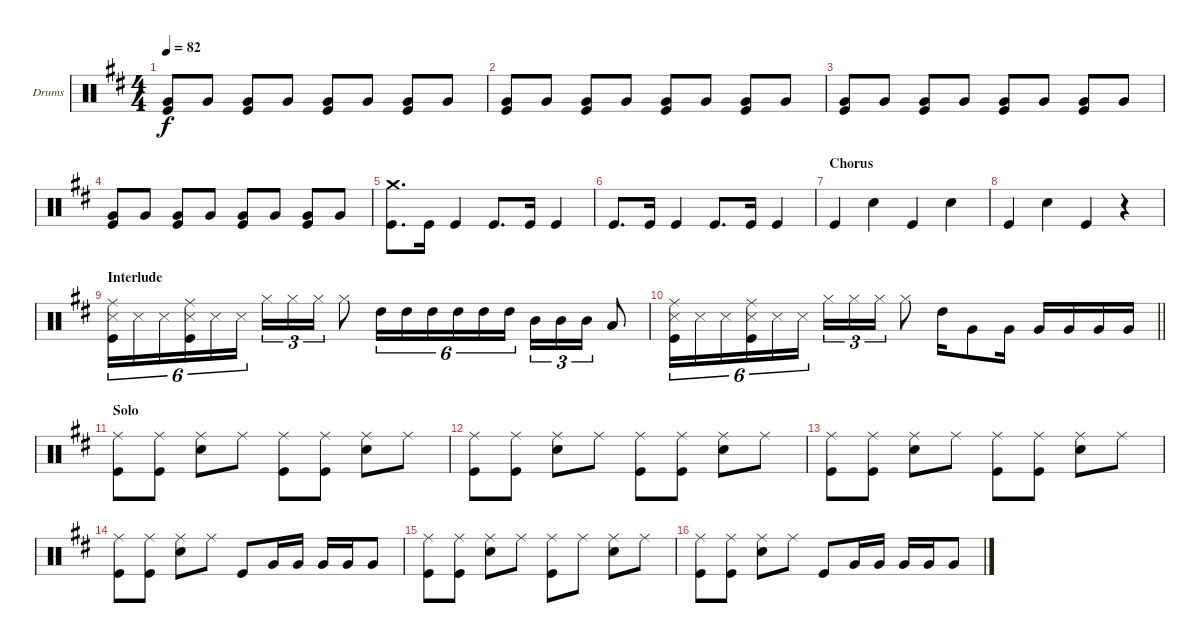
\bracketExtendMode groupsimilarinstruments
\firstSystemTrackNameOrientation horizontal
\otherSystemsTrackNameOrientation horizontal
\track ("Drumkit" "Drums") {instrument percussion}
\staff {score}
\articulation defaults
\ts (4 4)
\tempo 82
\clef neutral
\ks d
("Very Low Tom (hit)" "Kick (hit)").8{dy f} "Very Low Tom (hit)".8 ("Very Low Tom (hit)" "Kick (hit)").8 "Very Low Tom (hit)".8 ("Very Low Tom (hit)" "Kick (hit)").8 "Very Low Tom (hit)".8 ("Very Low Tom (hit)" "Kick (hit)").8 "Very Low Tom (hit)".8 |
("Very Low Tom (hit)" "Kick (hit)").8 "Very Low Tom (hit)".8 ("Very Low Tom (hit)" "Kick (hit)").8 "Very Low Tom (hit)".8 ("Very Low Tom (hit)" "Kick (hit)").8 "Very Low Tom (hit)".8 ("Very Low Tom (hit)" "Kick (hit)").8 "Very Low Tom (hit)".8 |
("Very Low Tom (hit)" "Kick (hit)").8 "Very Low Tom (hit)".8 ("Very Low Tom (hit)" "Kick (hit)").8 "Very Low Tom (hit)".8 ("Very Low Tom (hit)" "Kick (hit)").8 "Very Low Tom (hit)".8 ("Very Low Tom (hit)" "Kick (hit)").8 "Very Low Tom (hit)".8 |
("Very Low Tom (hit)" "Kick (hit)").8 "Very Low Tom (hit)".8 ("Very Low Tom (hit)" "Kick (hit)").8 "Very Low Tom (hit)".8 ("Very Low Tom (hit)" "Kick (hit)").8 "Very Low Tom (hit)".8 ("Very Low Tom (hit)" "Kick (hit)").8 "Very Low Tom (hit)".8 |
("Crash medium (hit)" "Kick (hit)").8{d} "Kick (hit)".16 "Kick (hit)".4 "Kick (hit)".8{d} "Kick (hit)".16 "Kick (hit)".4 |
"Kick (hit)".8{d} "Kick (hit)".16 "Kick (hit)".4 "Kick (hit)".8{d} "Kick (hit)".16 "Kick (hit)".4 |
\section ("" "Chorus")
"Kick (hit)".4 "Snare (hit) 2".4 "Kick (hit)".4 "Snare (hit) 2".4 |
"Kick (hit)".4 "Snare (hit) 2".4 "Kick (hit)".4 r.4 |
\section ("" "Interlude")
("Snare (side stick) 3" "Kick (hit)" "Ride (middle)").16{tu (6 4)} "Snare (side stick) 3".16{tu (6 4)} "Snare (side stick) 3".16{tu (6 4)} ("Snare (side stick) 3" "Kick (hit)" "Ride (middle)").16{tu (6 4)} "Snare (side stick) 3".16{tu (6 4)} "Snare (side stick) 3".16{tu (6 4)} "Hi-Hat (closed)".16{tu (3 2)} "Hi-Hat (closed)".16{tu (3 2)} "Hi-Hat (closed)".16{tu (3 2)} "Hi-Hat (closed)".8 "High Tom (hit)".16{tu (6 4)} "High Tom (hit)".16{tu (6 4)} "High Tom (hit)".16{tu (6 4)} "High Tom (hit)".16{tu (6 4)} "High Tom (hit)".16{tu (6 4)} "High Tom (hit)".16{tu (6 4)} "Mid Tom (hit)".16{tu (3 2)} "Mid Tom (hit)".16{tu (3 2)} "Mid Tom (hit)".16{tu (3 2)} "Low Tom (hit)".8 |
\barLineRight lightlight
("Snare (side stick) 3" "Kick (hit)" "Ride (middle)").16{tu (6 4)} "Snare (side stick) 3".16{tu (6 4)} "Snare (side stick) 3".16{tu (6 4)} ("Snare (side stick) 3" "Kick (hit)" "Ride (middle)").16{tu (6 4)} "Snare (side stick) 3".16{tu (6 4)} "Snare (side stick) 3".16{tu (6 4)} "Hi-Hat (closed)".16{tu (3 2)} "Hi-Hat (closed)".16{tu (3 2)} "Hi-Hat (closed)".16{tu (3 2)} "Hi-Hat (closed)".8 "High Tom (hit)".16 "Very Low Tom (hit)".8 "Very Low Tom (hit)".16 "Very Low Tom (hit)".16 "Very Low Tom (hit)".16 "Very Low Tom (hit)".16 "Very Low Tom (hit)".16 |
\section ("" "Solo")
("Ride (middle)" "Kick (hit)").8 ("Ride (middle)" "Kick (hit)").8 ("Ride (middle)" "Snare (hit) 2").8 "Ride (middle)".8 ("Ride (middle)" "Kick (hit)").8 ("Ride (middle)" "Kick (hit)").8 ("Ride (middle)" "Snare (hit) 2").8 "Ride (middle)".8 |
("Ride (middle)" "Kick (hit)").8 ("Ride (middle)" "Kick (hit)").8 ("Ride (middle)" "Snare (hit) 2").8 "Ride (middle)".8 ("Ride (middle)" "Kick (hit)").8 ("Ride (middle)" "Kick (hit)").8 ("Ride (middle)" "Snare (hit) 2").8 "Ride (middle)".8 |
("Ride (middle)" "Kick (hit)").8 ("Ride (middle)" "Kick (hit)").8 ("Ride (middle)" "Snare (hit) 2").8 "Ride (middle)".8 ("Ride (middle)" "Kick (hit)").8 ("Ride (middle)" "Kick (hit)").8 ("Ride (middle)" "Snare (hit) 2").8 "Ride (middle)".8 |
("Ride (middle)" "Kick (hit)").8 ("Ride (middle)" "Kick (hit)").8 ("Ride (middle)" "Snare (hit) 2").8 "Ride (middle)".8 "Kick (hit)".8 "Very Low Tom (hit)".16 "Very Low Tom (hit)".16 "Very Low Tom (hit)".16 "Very Low Tom (hit)".16 "Very Low Tom (hit)".8 |
("Ride (middle)" "Kick (hit)").8 ("Ride (middle)" "Kick (hit)").8 ("Ride (middle)" "Snare (hit) 2").8 "Ride (middle)".8 ("Ride (middle)" "Kick (hit)").8 "Ride (middle)".8 ("Ride (middle)" "Snare (hit) 2").8 "Ride (middle)".8 |
("Ride (middle)" "Kick (hit)").8 ("Ride (middle)" "Kick (hit)").8 ("Ride (middle)" "Snare (hit) 2").8 "Ride (middle)".8 "Kick (hit)".8 "Very Low Tom (hit)".16 "Very Low Tom (hit)".16 "Very Low Tom (hit)".16 "Very Low Tom (hit)".16 "Very Low Tom (hit)".8
